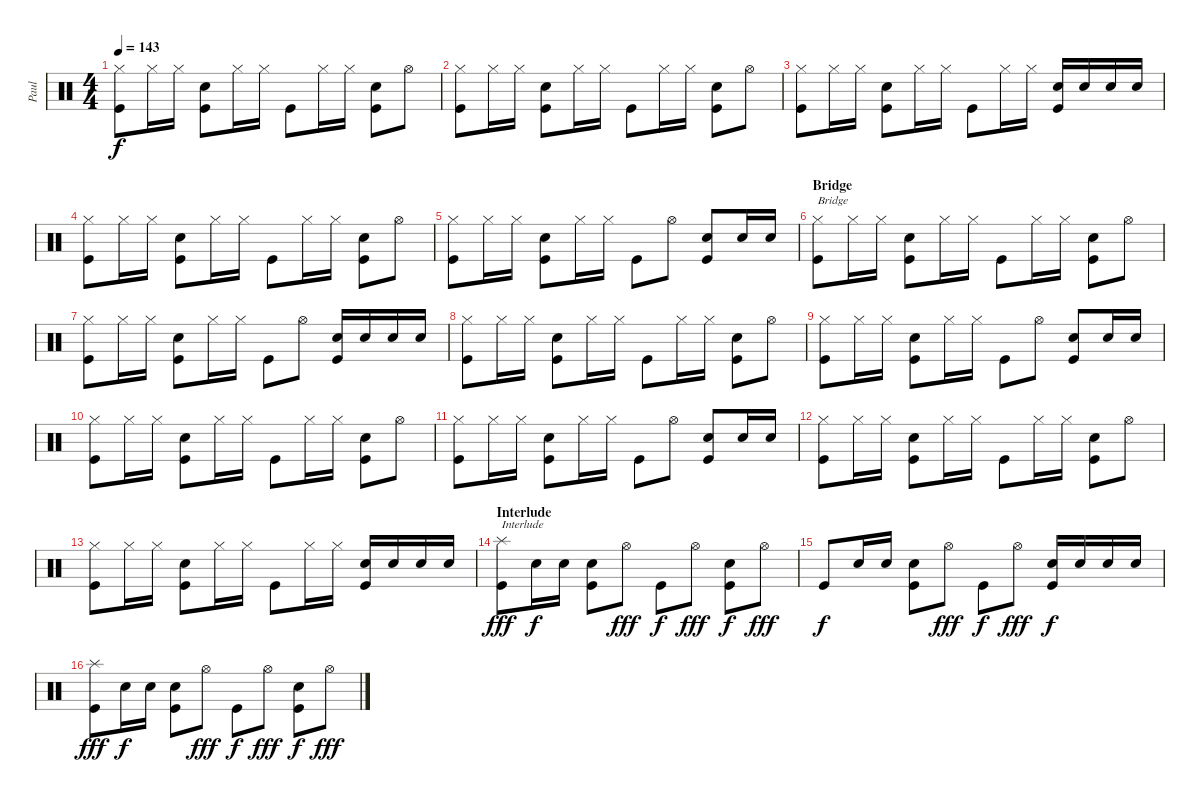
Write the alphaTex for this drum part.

\track ("Paul" "Paul") {instrument percussion}
\staff {score}
\articulation defaults
\ts (4 4)
\tempo 143
\clef neutral
\ks c
("Hi-Hat (closed)" "Kick (hit)").8{dy f} "Hi-Hat (closed)".16 "Hi-Hat (closed)".16 ("Kick (hit)" "Electric Snare (hit)").8 "Hi-Hat (closed)".16 "Hi-Hat (closed)".16 "Kick (hit)".8 "Hi-Hat (closed)".16 "Hi-Hat (closed)".16 ("Kick (hit)" "Electric Snare (hit)").8 "Hi-Hat (open)".8 |
("Hi-Hat (closed)" "Kick (hit)").8 "Hi-Hat (closed)".16 "Hi-Hat (closed)".16 ("Kick (hit)" "Electric Snare (hit)").8 "Hi-Hat (closed)".16 "Hi-Hat (closed)".16 "Kick (hit)".8 "Hi-Hat (closed)".16 "Hi-Hat (closed)".16 ("Kick (hit)" "Electric Snare (hit)").8 "Hi-Hat (open)".8 |
("Hi-Hat (closed)" "Kick (hit)").8 "Hi-Hat (closed)".16 "Hi-Hat (closed)".16 ("Kick (hit)" "Electric Snare (hit)").8 "Hi-Hat (closed)".16 "Hi-Hat (closed)".16 "Kick (hit)".8 "Hi-Hat (closed)".16 "Hi-Hat (closed)".16 ("Kick (hit)" "Electric Snare (hit)").16 "Electric Snare (hit)".16 "Electric Snare (hit)".16 "Electric Snare (hit)".16 |
("Hi-Hat (closed)" "Kick (hit)").8 "Hi-Hat (closed)".16 "Hi-Hat (closed)".16 ("Kick (hit)" "Electric Snare (hit)").8 "Hi-Hat (closed)".16 "Hi-Hat (closed)".16 "Kick (hit)".8 "Hi-Hat (closed)".16 "Hi-Hat (closed)".16 ("Kick (hit)" "Electric Snare (hit)").8 "Hi-Hat (open)".8 |
("Hi-Hat (closed)" "Kick (hit)").8 "Hi-Hat (closed)".16 "Hi-Hat (closed)".16 ("Kick (hit)" "Electric Snare (hit)").8 "Hi-Hat (closed)".16 "Hi-Hat (closed)".16 "Kick (hit)".8 "Hi-Hat (open)".8 ("Kick (hit)" "Electric Snare (hit)").8 "Electric Snare (hit)".16 "Electric Snare (hit)".16 |
\section ("" "Bridge")
("Hi-Hat (closed)" "Kick (hit)").8{txt "Bridge"} "Hi-Hat (closed)".16 "Hi-Hat (closed)".16 ("Kick (hit)" "Electric Snare (hit)").8 "Hi-Hat (closed)".16 "Hi-Hat (closed)".16 "Kick (hit)".8 "Hi-Hat (closed)".16 "Hi-Hat (closed)".16 ("Kick (hit)" "Electric Snare (hit)").8 "Hi-Hat (open)".8 |
("Hi-Hat (closed)" "Kick (hit)").8 "Hi-Hat (closed)".16 "Hi-Hat (closed)".16 ("Kick (hit)" "Electric Snare (hit)").8 "Hi-Hat (closed)".16 "Hi-Hat (closed)".16 "Kick (hit)".8 "Hi-Hat (open)".8 ("Kick (hit)" "Electric Snare (hit)").16 "Electric Snare (hit)".16 "Electric Snare (hit)".16 "Electric Snare (hit)".16 |
("Hi-Hat (closed)" "Kick (hit)").8 "Hi-Hat (closed)".16 "Hi-Hat (closed)".16 ("Kick (hit)" "Electric Snare (hit)").8 "Hi-Hat (closed)".16 "Hi-Hat (closed)".16 "Kick (hit)".8 "Hi-Hat (closed)".16 "Hi-Hat (closed)".16 ("Kick (hit)" "Electric Snare (hit)").8 "Hi-Hat (open)".8 |
("Hi-Hat (closed)" "Kick (hit)").8 "Hi-Hat (closed)".16 "Hi-Hat (closed)".16 ("Kick (hit)" "Electric Snare (hit)").8 "Hi-Hat (closed)".16 "Hi-Hat (closed)".16 "Kick (hit)".8 "Hi-Hat (open)".8 ("Kick (hit)" "Electric Snare (hit)").8 "Electric Snare (hit)".16 "Electric Snare (hit)".16 |
("Hi-Hat (closed)" "Kick (hit)").8 "Hi-Hat (closed)".16 "Hi-Hat (closed)".16 ("Kick (hit)" "Electric Snare (hit)").8 "Hi-Hat (closed)".16 "Hi-Hat (closed)".16 "Kick (hit)".8 "Hi-Hat (closed)".16 "Hi-Hat (closed)".16 ("Kick (hit)" "Electric Snare (hit)").8 "Hi-Hat (open)".8 |
("Hi-Hat (closed)" "Kick (hit)").8 "Hi-Hat (closed)".16 "Hi-Hat (closed)".16 ("Kick (hit)" "Electric Snare (hit)").8 "Hi-Hat (closed)".16 "Hi-Hat (closed)".16 "Kick (hit)".8 "Hi-Hat (open)".8 ("Kick (hit)" "Electric Snare (hit)").8 "Electric Snare (hit)".16 "Electric Snare (hit)".16 |
("Hi-Hat (closed)" "Kick (hit)").8 "Hi-Hat (closed)".16 "Hi-Hat (closed)".16 ("Kick (hit)" "Electric Snare (hit)").8 "Hi-Hat (closed)".16 "Hi-Hat (closed)".16 "Kick (hit)".8 "Hi-Hat (closed)".16 "Hi-Hat (closed)".16 ("Kick (hit)" "Electric Snare (hit)").8 "Hi-Hat (open)".8 |
("Hi-Hat (closed)" "Kick (hit)").8 "Hi-Hat (closed)".16 "Hi-Hat (closed)".16 ("Kick (hit)" "Electric Snare (hit)").8 "Hi-Hat (closed)".16 "Hi-Hat (closed)".16 "Kick (hit)".8 "Hi-Hat (closed)".16 "Hi-Hat (closed)".16 ("Kick (hit)" "Electric Snare (hit)").16 "Electric Snare (hit)".16 "Electric Snare (hit)".16 "Electric Snare (hit)".16 |
\section ("" "Interlude")
("Splash (hit)" "Kick (hit)").8{txt "Interlude" dy fff} "Electric Snare (hit)".16{dy f} "Electric Snare (hit)".16 ("Kick (hit)" "Electric Snare (hit)").8 "Hi-Hat (open)".8{dy fff} "Kick (hit)".8{dy f} "Hi-Hat (open)".8{dy fff} ("Kick (hit)" "Electric Snare (hit)").8{dy f} "Hi-Hat (open)".8{dy fff} |
"Kick (hit)".8{dy f} "Electric Snare (hit)".16 "Electric Snare (hit)".16 ("Kick (hit)" "Electric Snare (hit)").8 "Hi-Hat (open)".8{dy fff} "Kick (hit)".8{dy f} "Hi-Hat (open)".8{dy fff} ("Kick (hit)" "Electric Snare (hit)").16{dy f} "Electric Snare (hit)".16 "Electric Snare (hit)".16 "Electric Snare (hit)".16 |
("Splash (hit)" "Kick (hit)").8{dy fff} "Electric Snare (hit)".16{dy f} "Electric Snare (hit)".16 ("Kick (hit)" "Electric Snare (hit)").8 "Hi-Hat (open)".8{dy fff} "Kick (hit)".8{dy f} "Hi-Hat (open)".8{dy fff} ("Kick (hit)" "Electric Snare (hit)").8{dy f} "Hi-Hat (open)".8{dy fff}
